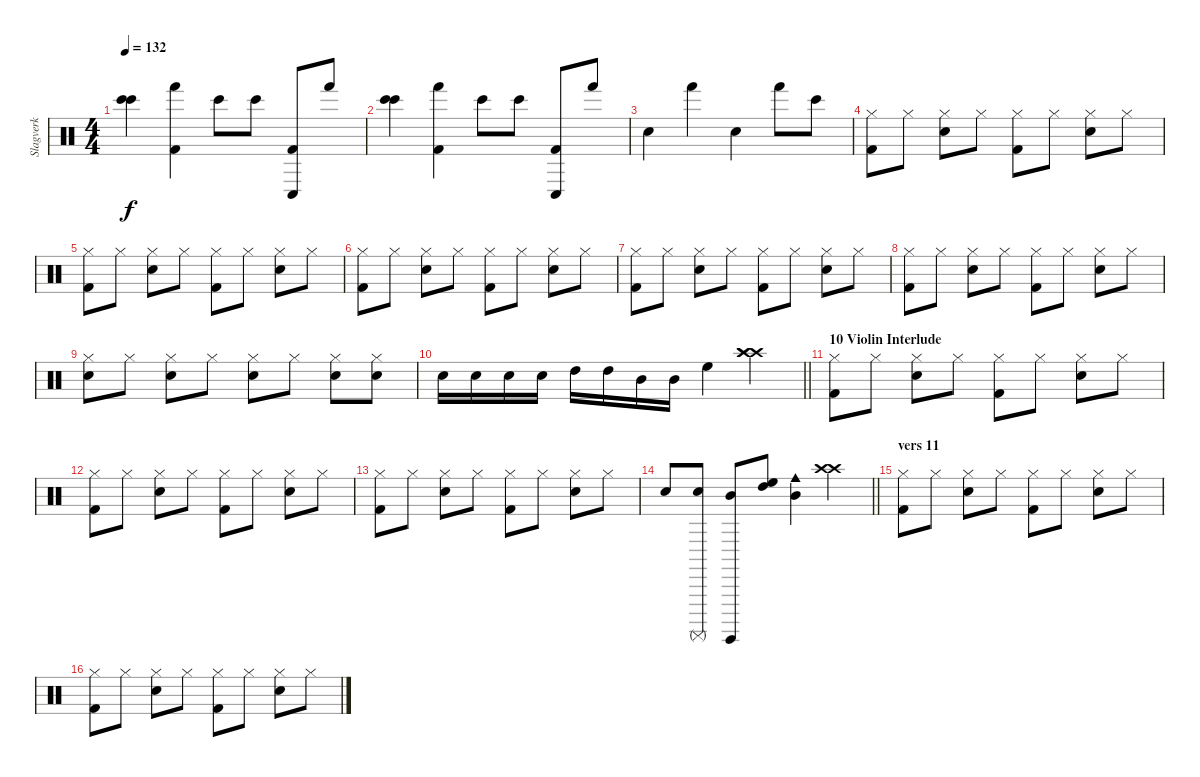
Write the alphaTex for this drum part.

\track ("Slagverk" "Slagverk") {instrument percussion}
\staff {score}
\articulation defaults
\ts (4 4)
\tempo 132
\clef neutral
\ks c
("Bongo High (hit)" "Bongo High (hit)").4{dy f} ("Kick (hit) 2" "Hand (hit)").4 "Bongo High (hit)".8 "Bongo High (hit)".8 ("Kick (hit) 2" "Conga low (hit)").8 "Hand (hit)".8 |
("Bongo High (hit)" "Bongo High (hit)").4 ("Kick (hit) 2" "Hand (hit)").4 "Bongo High (hit)".8 "Bongo High (hit)".8 ("Kick (hit) 2" "Conga low (hit)").8 "Hand (hit)".8 |
"Snare (hit) 2".4 "Hand (hit)".4 "Snare (hit) 2".4 "Hand (hit)".8 "Bongo High (hit)".8 |
("Kick (hit) 2" "Hi-Hat (closed)").8 "Hi-Hat (closed)".8 ("Snare (hit) 2" "Hi-Hat (closed)").8 "Hi-Hat (closed)".8 ("Kick (hit) 2" "Hi-Hat (closed)").8 "Hi-Hat (closed)".8 ("Snare (hit) 2" "Hi-Hat (closed)").8 "Hi-Hat (closed)".8 |
("Kick (hit) 2" "Hi-Hat (closed)").8 "Hi-Hat (closed)".8 ("Snare (hit) 2" "Hi-Hat (closed)").8 "Hi-Hat (closed)".8 ("Kick (hit) 2" "Hi-Hat (closed)").8 "Hi-Hat (closed)".8 ("Snare (hit) 2" "Hi-Hat (closed)").8 "Hi-Hat (closed)".8 |
("Kick (hit) 2" "Hi-Hat (closed)").8 "Hi-Hat (closed)".8 ("Snare (hit) 2" "Hi-Hat (closed)").8 "Hi-Hat (closed)".8 ("Kick (hit) 2" "Hi-Hat (closed)").8 "Hi-Hat (closed)".8 ("Snare (hit) 2" "Hi-Hat (closed)").8 "Hi-Hat (closed)".8 |
("Kick (hit) 2" "Hi-Hat (closed)").8 "Hi-Hat (closed)".8 ("Snare (hit) 2" "Hi-Hat (closed)").8 "Hi-Hat (closed)".8 ("Kick (hit) 2" "Hi-Hat (closed)").8 "Hi-Hat (closed)".8 ("Snare (hit) 2" "Hi-Hat (closed)").8 "Hi-Hat (closed)".8 |
("Kick (hit) 2" "Hi-Hat (closed)").8 "Hi-Hat (closed)".8 ("Snare (hit) 2" "Hi-Hat (closed)").8 "Hi-Hat (closed)".8 ("Kick (hit) 2" "Hi-Hat (closed)").8 "Hi-Hat (closed)".8 ("Snare (hit) 2" "Hi-Hat (closed)").8 "Hi-Hat (closed)".8 |
("Snare (hit) 2" "Hi-Hat (closed)").8 "Hi-Hat (closed)".8 ("Snare (hit) 2" "Hi-Hat (closed)").8 "Hi-Hat (closed)".8 ("Snare (hit) 2" "Hi-Hat (closed)").8 "Hi-Hat (closed)".8 ("Snare (hit) 2" "Hi-Hat (closed)").8 ("Snare (hit) 2" "Hi-Hat (closed)").8 |
\barLineRight lightlight "Snare (hit) 2".16 "Snare (hit) 2".16 "Snare (hit) 2".16 "Snare (hit) 2".16 "High Tom (hit)".16 "High Tom (hit)".16 "Mid Tom (hit)".16 "Mid Tom (hit)".16 "High Floor Tom (hit)".4
("Crash high (hit)" "Crash high (hit)" "Crash high (hit)").4 |
\section ("" "10 Violin Interlude")
("Kick (hit) 2" "Hi-Hat (closed)").8 "Hi-Hat (closed)".8 ("Snare (hit) 2" "Hi-Hat (closed)").8 "Hi-Hat (closed)".8 ("Kick (hit) 2" "Hi-Hat (closed)").8 "Hi-Hat (closed)".8 ("Snare (hit) 2" "Hi-Hat (closed)").8 "Hi-Hat (closed)".8 |
("Kick (hit) 2" "Hi-Hat (closed)").8 "Hi-Hat (closed)".8 ("Snare (hit) 2" "Hi-Hat (closed)").8 "Hi-Hat (closed)".8 ("Kick (hit) 2" "Hi-Hat (closed)").8 "Hi-Hat (closed)".8 ("Snare (hit) 2" "Hi-Hat (closed)").8 "Hi-Hat (closed)".8 |
("Kick (hit) 2" "Hi-Hat (closed)").8 "Hi-Hat (closed)".8 ("Snare (hit) 2" "Hi-Hat (closed)").8 "Hi-Hat (closed)".8 ("Kick (hit) 2" "Hi-Hat (closed)").8 "Hi-Hat (closed)".8 ("Snare (hit) 2" "Hi-Hat (closed)").8 "Hi-Hat (closed)".8 |
\barLineRight lightlight "Snare (hit) 2".8
("Snare (hit) 2" "Surdo (mute)").8 ("Surdo (hit)" "Mid Tom (hit)").8 ("High Floor Tom (hit)" "High Tom (hit)").8 ("Cowbell medium (hit)" "Mid Tom (hit)").4 ("Crash high (hit)" "Crash high (hit)").4 |
\section ("" "vers 11")
("Kick (hit) 2" "Hi-Hat (closed)").8 "Hi-Hat (closed)".8 ("Snare (hit) 2" "Hi-Hat (closed)").8 "Hi-Hat (closed)".8 ("Kick (hit) 2" "Hi-Hat (closed)").8 "Hi-Hat (closed)".8 ("Snare (hit) 2" "Hi-Hat (closed)").8 "Hi-Hat (closed)".8 |
("Kick (hit) 2" "Hi-Hat (closed)").8 "Hi-Hat (closed)".8 ("Snare (hit) 2" "Hi-Hat (closed)").8 "Hi-Hat (closed)".8 ("Kick (hit) 2" "Hi-Hat (closed)").8 "Hi-Hat (closed)".8 ("Snare (hit) 2" "Hi-Hat (closed)").8 "Hi-Hat (closed)".8
